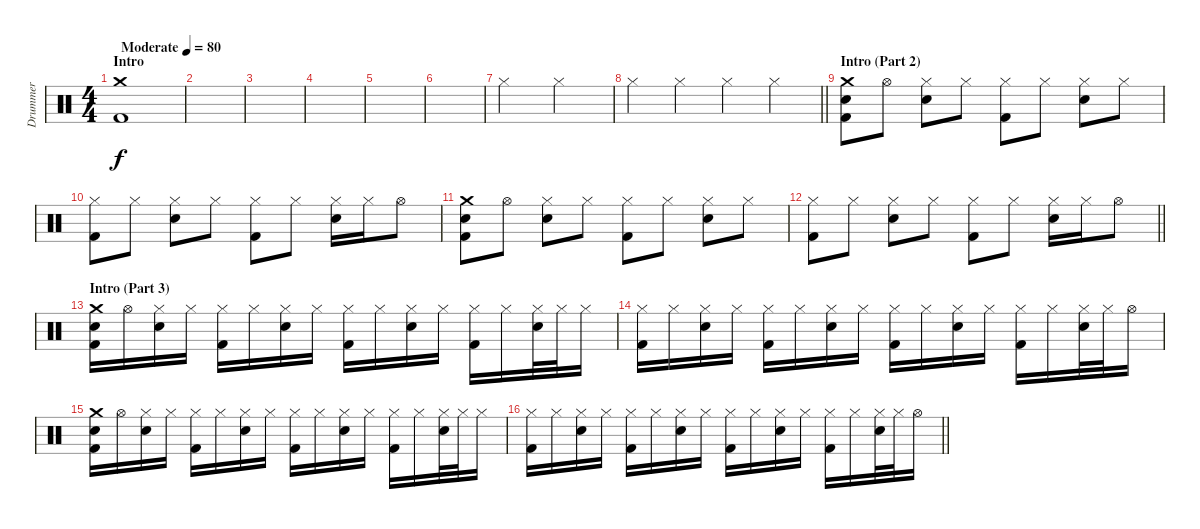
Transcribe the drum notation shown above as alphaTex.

\track ("Drummer" "Drummer") {instrument percussion}
\staff {score}
\articulation defaults
\ts (4 4)
\section ("" "Intro")
\tempo (80 "Moderate")
\clef neutral
\ks c
("Kick (hit) 2" "Crash medium (hit)").1{dy f} |
|
|
|
|
|
"Hi-Hat (closed)".2 "Hi-Hat (closed)".2 |
\barLineRight lightlight "Hi-Hat (closed)".4 "Hi-Hat (closed)".4 "Hi-Hat (closed)".4 "Hi-Hat (closed)".4
|
\section ("" "Intro (Part 2)")
("Kick (hit) 2" "Electric Snare (hit)" "Crash medium (hit)").8 "Hi-Hat (open)".8 ("Electric Snare (hit)" "Hi-Hat (closed)").8 "Hi-Hat (closed)".8 ("Kick (hit) 2" "Hi-Hat (closed)").8 "Hi-Hat (closed)".8 ("Electric Snare (hit)" "Hi-Hat (closed)").8 "Hi-Hat (closed)".8 |
("Kick (hit) 2" "Hi-Hat (closed)").8 "Hi-Hat (closed)".8 ("Electric Snare (hit)" "Hi-Hat (closed)").8 "Hi-Hat (closed)".8 ("Kick (hit) 2" "Hi-Hat (closed)").8 "Hi-Hat (closed)".8 ("Electric Snare (hit)" "Hi-Hat (closed)").16 "Hi-Hat (closed)".16 "Hi-Hat (open)".8 |
("Kick (hit) 2" "Electric Snare (hit)" "Crash medium (hit)").8 "Hi-Hat (open)".8 ("Electric Snare (hit)" "Hi-Hat (closed)").8 "Hi-Hat (closed)".8 ("Kick (hit) 2" "Hi-Hat (closed)").8 "Hi-Hat (closed)".8 ("Electric Snare (hit)" "Hi-Hat (closed)").8 "Hi-Hat (closed)".8 |
\barLineRight lightlight
("Kick (hit) 2" "Hi-Hat (closed)").8 "Hi-Hat (closed)".8 ("Electric Snare (hit)" "Hi-Hat (closed)").8 "Hi-Hat (closed)".8 ("Kick (hit) 2" "Hi-Hat (closed)").8 "Hi-Hat (closed)".8 ("Electric Snare (hit)" "Hi-Hat (closed)").16 "Hi-Hat (closed)".16 "Hi-Hat (open)".8 |
\section ("" "Intro (Part 3)")
("Kick (hit) 2" "Electric Snare (hit)" "Crash medium (hit)").16 "Hi-Hat (open)".16 ("Electric Snare (hit)" "Hi-Hat (closed)").16 "Hi-Hat (closed)".16 ("Kick (hit) 2" "Hi-Hat (closed)").16 "Hi-Hat (closed)".16 ("Electric Snare (hit)" "Hi-Hat (closed)").16 "Hi-Hat (closed)".16 ("Kick (hit) 2" "Hi-Hat (closed)").16 "Hi-Hat (closed)".16 ("Electric Snare (hit)" "Hi-Hat (closed)").16 "Hi-Hat (closed)".16 ("Kick (hit) 2" "Hi-Hat (closed)").16 "Hi-Hat (closed)".16 ("Electric Snare (hit)" "Hi-Hat (closed)").32 "Hi-Hat (closed)".32 "Hi-Hat (closed)".16 |
("Kick (hit) 2" "Hi-Hat (closed)").16 "Hi-Hat (closed)".16 ("Electric Snare (hit)" "Hi-Hat (closed)").16 "Hi-Hat (closed)".16 ("Kick (hit) 2" "Hi-Hat (closed)").16 "Hi-Hat (closed)".16 ("Electric Snare (hit)" "Hi-Hat (closed)").16 "Hi-Hat (closed)".16 ("Kick (hit) 2" "Hi-Hat (closed)").16 "Hi-Hat (closed)".16 ("Electric Snare (hit)" "Hi-Hat (closed)").16 "Hi-Hat (closed)".16 ("Kick (hit) 2" "Hi-Hat (closed)").16 "Hi-Hat (closed)".16 ("Electric Snare (hit)" "Hi-Hat (closed)").32 "Hi-Hat (closed)".32 "Hi-Hat (open)".16 |
("Kick (hit) 2" "Electric Snare (hit)" "Crash medium (hit)").16 "Hi-Hat (open)".16 ("Electric Snare (hit)" "Hi-Hat (closed)").16 "Hi-Hat (closed)".16 ("Kick (hit) 2" "Hi-Hat (closed)").16 "Hi-Hat (closed)".16 ("Electric Snare (hit)" "Hi-Hat (closed)").16 "Hi-Hat (closed)".16 ("Kick (hit) 2" "Hi-Hat (closed)").16 "Hi-Hat (closed)".16 ("Electric Snare (hit)" "Hi-Hat (closed)").16 "Hi-Hat (closed)".16 ("Kick (hit) 2" "Hi-Hat (closed)").16 "Hi-Hat (closed)".16 ("Electric Snare (hit)" "Hi-Hat (closed)").32 "Hi-Hat (closed)".32 "Hi-Hat (closed)".16 |
\barLineRight lightlight
("Kick (hit) 2" "Hi-Hat (closed)").16 "Hi-Hat (closed)".16 ("Electric Snare (hit)" "Hi-Hat (closed)").16 "Hi-Hat (closed)".16 ("Kick (hit) 2" "Hi-Hat (closed)").16 "Hi-Hat (closed)".16 ("Electric Snare (hit)" "Hi-Hat (closed)").16 "Hi-Hat (closed)".16 ("Kick (hit) 2" "Hi-Hat (closed)").16 "Hi-Hat (closed)".16 ("Electric Snare (hit)" "Hi-Hat (closed)").16 "Hi-Hat (closed)".16 ("Kick (hit) 2" "Hi-Hat (closed)").16 "Hi-Hat (closed)".16 ("Electric Snare (hit)" "Hi-Hat (closed)").32 "Hi-Hat (closed)".32 "Hi-Hat (open)".16
